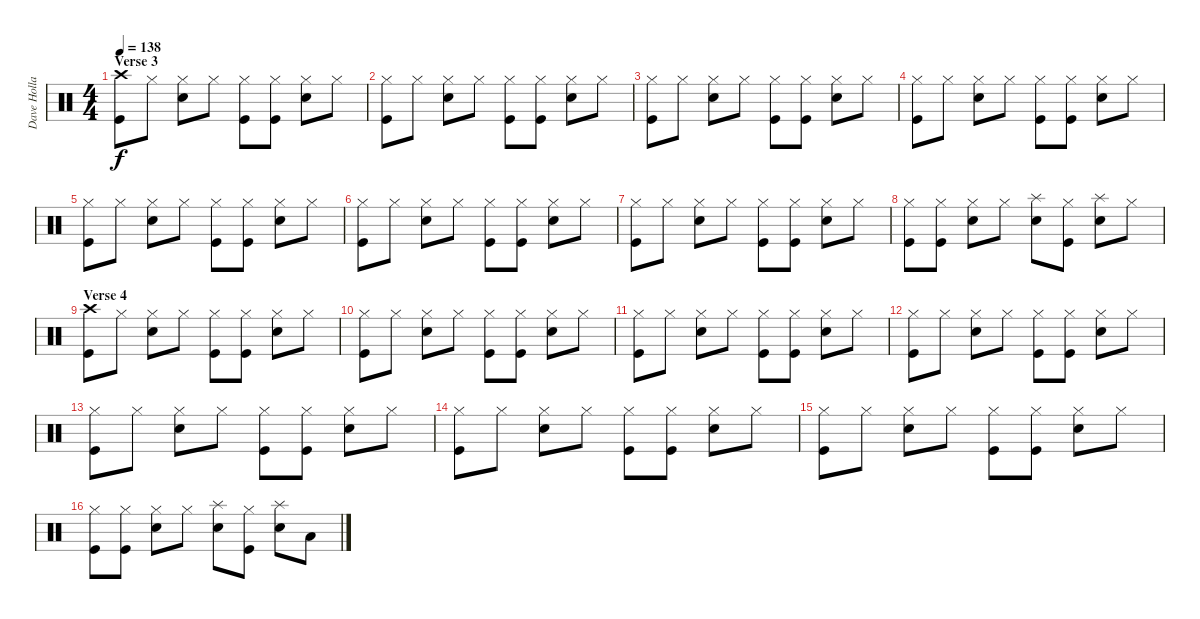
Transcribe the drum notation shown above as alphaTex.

\track ("Dave Holland" "Dave Holla") {instrument percussion}
\staff {score}
\articulation defaults
\ts (4 4)
\section ("" "Verse 3")
\tempo 138
\clef neutral
\ks c
("Crash high (hit)" "Kick (hit)").8{dy f} "Hi-Hat (closed)".8 ("Hi-Hat (closed)" "Electric Snare (hit)").8 "Hi-Hat (closed)".8 ("Hi-Hat (closed)" "Kick (hit)").8 ("Hi-Hat (closed)" "Kick (hit)").8 ("Hi-Hat (closed)" "Electric Snare (hit)").8 "Hi-Hat (closed)".8 |
("Hi-Hat (closed)" "Kick (hit)").8 "Hi-Hat (closed)".8 ("Hi-Hat (closed)" "Electric Snare (hit)").8 "Hi-Hat (closed)".8 ("Hi-Hat (closed)" "Kick (hit)").8 ("Hi-Hat (closed)" "Kick (hit)").8 ("Hi-Hat (closed)" "Electric Snare (hit)").8 "Hi-Hat (closed)".8 |
("Hi-Hat (closed)" "Kick (hit)").8 "Hi-Hat (closed)".8 ("Hi-Hat (closed)" "Electric Snare (hit)").8 "Hi-Hat (closed)".8 ("Hi-Hat (closed)" "Kick (hit)").8 ("Hi-Hat (closed)" "Kick (hit)").8 ("Hi-Hat (closed)" "Electric Snare (hit)").8 "Hi-Hat (closed)".8 |
("Hi-Hat (closed)" "Kick (hit)").8 "Hi-Hat (closed)".8 ("Hi-Hat (closed)" "Electric Snare (hit)").8 "Hi-Hat (closed)".8 ("Hi-Hat (closed)" "Kick (hit)").8 ("Hi-Hat (closed)" "Kick (hit)").8 ("Hi-Hat (closed)" "Electric Snare (hit)").8 "Hi-Hat (closed)".8 |
("Hi-Hat (closed)" "Kick (hit)").8 "Hi-Hat (closed)".8 ("Hi-Hat (closed)" "Electric Snare (hit)").8 "Hi-Hat (closed)".8 ("Hi-Hat (closed)" "Kick (hit)").8 ("Hi-Hat (closed)" "Kick (hit)").8 ("Hi-Hat (closed)" "Electric Snare (hit)").8 "Hi-Hat (closed)".8 |
("Hi-Hat (closed)" "Kick (hit)").8 "Hi-Hat (closed)".8 ("Hi-Hat (closed)" "Electric Snare (hit)").8 "Hi-Hat (closed)".8 ("Hi-Hat (closed)" "Kick (hit)").8 ("Hi-Hat (closed)" "Kick (hit)").8 ("Hi-Hat (closed)" "Electric Snare (hit)").8 "Hi-Hat (closed)".8 |
("Hi-Hat (closed)" "Kick (hit)").8 "Hi-Hat (closed)".8 ("Hi-Hat (closed)" "Electric Snare (hit)").8 "Hi-Hat (closed)".8 ("Hi-Hat (closed)" "Kick (hit)").8 ("Hi-Hat (closed)" "Kick (hit)").8 ("Hi-Hat (closed)" "Electric Snare (hit)").8 "Hi-Hat (closed)".8 |
("Hi-Hat (closed)" "Kick (hit)").8 ("Hi-Hat (closed)" "Kick (hit)").8 ("Hi-Hat (closed)" "Electric Snare (hit)").8 "Hi-Hat (closed)".8 ("Splash (hit)" "Electric Snare (hit)").8 ("Hi-Hat (closed)" "Kick (hit)").8 ("Splash (hit)" "Electric Snare (hit)").8 "Hi-Hat (closed)".8 |
\section ("" "Verse 4")
("Crash high (hit)" "Kick (hit)").8 "Hi-Hat (closed)".8 ("Hi-Hat (closed)" "Electric Snare (hit)").8 "Hi-Hat (closed)".8 ("Hi-Hat (closed)" "Kick (hit)").8 ("Hi-Hat (closed)" "Kick (hit)").8 ("Hi-Hat (closed)" "Electric Snare (hit)").8 "Hi-Hat (closed)".8 |
("Hi-Hat (closed)" "Kick (hit)").8 "Hi-Hat (closed)".8 ("Hi-Hat (closed)" "Electric Snare (hit)").8 "Hi-Hat (closed)".8 ("Hi-Hat (closed)" "Kick (hit)").8 ("Hi-Hat (closed)" "Kick (hit)").8 ("Hi-Hat (closed)" "Electric Snare (hit)").8 "Hi-Hat (closed)".8 |
("Hi-Hat (closed)" "Kick (hit)").8 "Hi-Hat (closed)".8 ("Hi-Hat (closed)" "Electric Snare (hit)").8 "Hi-Hat (closed)".8 ("Hi-Hat (closed)" "Kick (hit)").8 ("Hi-Hat (closed)" "Kick (hit)").8 ("Hi-Hat (closed)" "Electric Snare (hit)").8 "Hi-Hat (closed)".8 |
("Hi-Hat (closed)" "Kick (hit)").8 "Hi-Hat (closed)".8 ("Hi-Hat (closed)" "Electric Snare (hit)").8 "Hi-Hat (closed)".8 ("Hi-Hat (closed)" "Kick (hit)").8 ("Hi-Hat (closed)" "Kick (hit)").8 ("Hi-Hat (closed)" "Electric Snare (hit)").8 "Hi-Hat (closed)".8 |
("Hi-Hat (closed)" "Kick (hit)").8 "Hi-Hat (closed)".8 ("Hi-Hat (closed)" "Electric Snare (hit)").8 "Hi-Hat (closed)".8 ("Hi-Hat (closed)" "Kick (hit)").8 ("Hi-Hat (closed)" "Kick (hit)").8 ("Hi-Hat (closed)" "Electric Snare (hit)").8 "Hi-Hat (closed)".8 |
("Hi-Hat (closed)" "Kick (hit)").8 "Hi-Hat (closed)".8 ("Hi-Hat (closed)" "Electric Snare (hit)").8 "Hi-Hat (closed)".8 ("Hi-Hat (closed)" "Kick (hit)").8 ("Hi-Hat (closed)" "Kick (hit)").8 ("Hi-Hat (closed)" "Electric Snare (hit)").8 "Hi-Hat (closed)".8 |
("Hi-Hat (closed)" "Kick (hit)").8 "Hi-Hat (closed)".8 ("Hi-Hat (closed)" "Electric Snare (hit)").8 "Hi-Hat (closed)".8 ("Hi-Hat (closed)" "Kick (hit)").8 ("Hi-Hat (closed)" "Kick (hit)").8 ("Hi-Hat (closed)" "Electric Snare (hit)").8 "Hi-Hat (closed)".8 |
("Hi-Hat (closed)" "Kick (hit)").8 ("Hi-Hat (closed)" "Kick (hit)").8 ("Hi-Hat (closed)" "Electric Snare (hit)").8 "Hi-Hat (closed)".8 ("Splash (hit)" "Electric Snare (hit)").8 ("Hi-Hat (closed)" "Kick (hit)").8 ("Splash (hit)" "Electric Snare (hit)").8 "Low Tom (hit)".8
